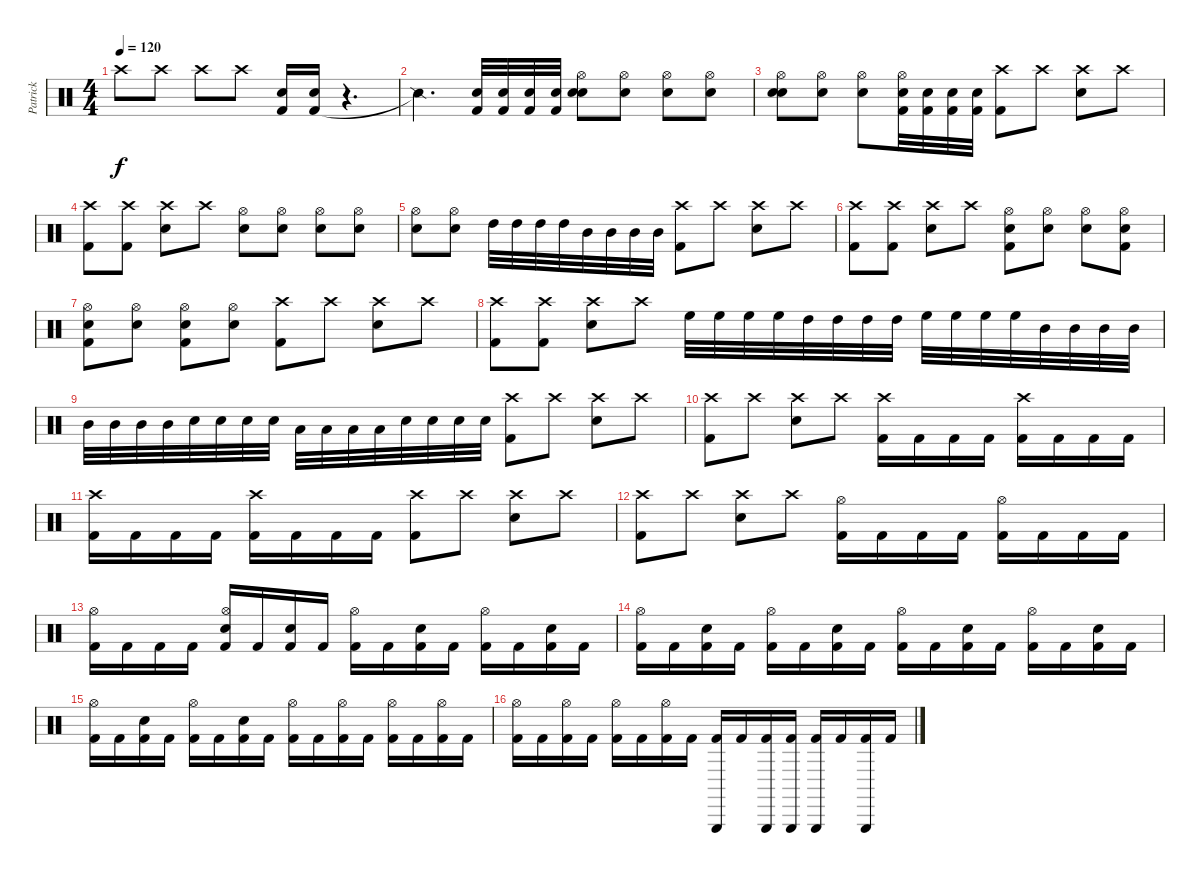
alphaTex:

\track ("Patrick" "Patrick") {instrument percussion}
\staff {score}
\articulation defaults
\ts (4 4)
\tempo 120
\clef neutral
\ks c "Crash high (hit)".8{dy f} "Crash high (hit)".8 "Crash high (hit)".8 "Crash high (hit)".8
("Kick (hit) 2" "Electric Snare (hit)").16 ("Kick (hit) 2" "Electric Snare (hit)").16 r.4{d} |
"Snare (side stick) 2"{t}.4{d} ("Kick (hit) 2" "Electric Snare (hit)").32 ("Kick (hit) 2" "Electric Snare (hit)").32 ("Kick (hit) 2" "Electric Snare (hit)").32 ("Kick (hit) 2" "Electric Snare (hit)").32 ("Hi-Hat (open)" "Snare (hit) 2" "Electric Snare (hit)").8 ("Hi-Hat (open)" "Snare (hit) 2").8 ("Hi-Hat (open)" "Snare (hit) 2").8 ("Hi-Hat (open)" "Snare (hit) 2").8 |
("Hi-Hat (open)" "Snare (hit) 2" "Electric Snare (hit)").8 ("Hi-Hat (open)" "Snare (hit) 2").8 ("Hi-Hat (open)" "Snare (hit) 2").8 ("Kick (hit) 2" "Electric Snare (hit)" "Hi-Hat (open)").32 ("Kick (hit) 2" "Electric Snare (hit)").32 ("Kick (hit) 2" "Electric Snare (hit)").32 ("Kick (hit) 2" "Electric Snare (hit)").32 ("Crash high (hit)" "Kick (hit) 2").8 "Crash high (hit)".8 ("Crash high (hit)" "Snare (hit) 2").8 "Crash high (hit)".8 |
("Crash high (hit)" "Kick (hit) 2").8 ("Crash high (hit)" "Kick (hit) 2").8 ("Crash high (hit)" "Snare (hit) 2").8 "Crash high (hit)".8 ("Hi-Hat (open)" "Snare (hit) 2").8 ("Hi-Hat (open)" "Snare (hit) 2").8 ("Hi-Hat (open)" "Snare (hit) 2").8 ("Hi-Hat (open)" "Snare (hit) 2").8 |
("Hi-Hat (open)" "Snare (hit) 2").8 ("Hi-Hat (open)" "Snare (hit) 2").8 "High Tom (hit)".32 "High Tom (hit)".32 "High Tom (hit)".32 "High Tom (hit)".32 "Mid Tom (hit)".32 "Mid Tom (hit)".32 "Mid Tom (hit)".32 "Mid Tom (hit)".32 ("Crash high (hit)" "Kick (hit) 2").8 "Crash high (hit)".8 ("Crash high (hit)" "Snare (hit) 2").8 "Crash high (hit)".8 |
("Crash high (hit)" "Kick (hit) 2").8 ("Crash high (hit)" "Kick (hit) 2").8 ("Crash high (hit)" "Snare (hit) 2").8 "Crash high (hit)".8 ("Hi-Hat (open)" "Electric Snare (hit)" "Kick (hit) 2").8 ("Hi-Hat (open)" "Electric Snare (hit)").8 ("Hi-Hat (open)" "Electric Snare (hit)").8 ("Hi-Hat (open)" "Electric Snare (hit)" "Kick (hit) 2").8 |
("Hi-Hat (open)" "Electric Snare (hit)" "Kick (hit) 2").8 ("Hi-Hat (open)" "Electric Snare (hit)").8 ("Hi-Hat (open)" "Electric Snare (hit)" "Kick (hit) 2").8 ("Hi-Hat (open)" "Electric Snare (hit)").8 ("Crash high (hit)" "Kick (hit) 2").8 "Crash high (hit)".8 ("Crash high (hit)" "Snare (hit) 2").8 "Crash high (hit)".8 |
("Crash high (hit)" "Kick (hit) 2").8 ("Crash high (hit)" "Kick (hit) 2").8 ("Crash high (hit)" "Snare (hit) 2").8 "Crash high (hit)".8 "High Floor Tom (hit)".32 "High Floor Tom (hit)".32 "High Floor Tom (hit)".32 "High Floor Tom (hit)".32 "High Tom (hit)".32 "High Tom (hit)".32 "High Tom (hit)".32 "High Tom (hit)".32 "High Floor Tom (hit)".32 "High Floor Tom (hit)".32 "High Floor Tom (hit)".32 "High Floor Tom (hit)".32 "Mid Tom (hit)".32 "Mid Tom (hit)".32 "Mid Tom (hit)".32 "Mid Tom (hit)".32 |
"Mid Tom (hit)".32 "Mid Tom (hit)".32 "Mid Tom (hit)".32 "Mid Tom (hit)".32 "Snare (hit) 2".32 "Snare (hit) 2".32 "Snare (hit) 2".32 "Snare (hit) 2".32 "Low Tom (hit)".32 "Low Tom (hit)".32 "Low Tom (hit)".32 "Low Tom (hit)".32 "Electric Snare (hit)".32 "Electric Snare (hit)".32 "Electric Snare (hit)".32 "Electric Snare (hit)".32 ("Crash high (hit)" "Kick (hit) 2").8 "Crash high (hit)".8 ("Crash high (hit)" "Snare (hit) 2").8 "Crash high (hit)".8 |
("Crash high (hit)" "Kick (hit) 2").8 "Crash high (hit)".8 ("Crash high (hit)" "Snare (hit) 2").8 "Crash high (hit)".8 ("Crash high (hit)" "Kick (hit) 2").16 "Kick (hit) 2".16 "Kick (hit) 2".16 "Kick (hit) 2".16 ("Crash high (hit)" "Kick (hit) 2").16 "Kick (hit) 2".16 "Kick (hit) 2".16 "Kick (hit) 2".16 |
("Crash high (hit)" "Kick (hit) 2").16 "Kick (hit) 2".16 "Kick (hit) 2".16 "Kick (hit) 2".16 ("Crash high (hit)" "Kick (hit) 2").16 "Kick (hit) 2".16 "Kick (hit) 2".16 "Kick (hit) 2".16 ("Crash high (hit)" "Kick (hit) 2").8 "Crash high (hit)".8 ("Crash high (hit)" "Snare (hit) 2").8 "Crash high (hit)".8 |
("Crash high (hit)" "Kick (hit) 2").8 "Crash high (hit)".8 ("Crash high (hit)" "Snare (hit) 2").8 "Crash high (hit)".8 ("Hi-Hat (open)" "Kick (hit) 2").16 "Kick (hit) 2".16 "Kick (hit) 2".16 "Kick (hit) 2".16 ("Hi-Hat (open)" "Kick (hit) 2").16 "Kick (hit) 2".16 "Kick (hit) 2".16 "Kick (hit) 2".16 |
("Hi-Hat (open)" "Kick (hit) 2").16 "Kick (hit) 2".16 "Kick (hit) 2".16 "Kick (hit) 2".16 ("Hi-Hat (open)" "Snare (hit) 2" "Kick (hit) 2").16 "Kick (hit) 2".16 ("Snare (hit) 2" "Kick (hit) 2").16 "Kick (hit) 2".16 ("Hi-Hat (open)" "Kick (hit) 2").16 "Kick (hit) 2".16 ("Electric Snare (hit)" "Kick (hit) 2").16 "Kick (hit) 2".16 ("Hi-Hat (open)" "Kick (hit) 2").16 "Kick (hit) 2".16 ("Electric Snare (hit)" "Kick (hit) 2").16 "Kick (hit) 2".16 |
("Hi-Hat (open)" "Kick (hit) 2").16 "Kick (hit) 2".16 ("Electric Snare (hit)" "Kick (hit) 2").16 "Kick (hit) 2".16 ("Hi-Hat (open)" "Kick (hit) 2").16 "Kick (hit) 2".16 ("Electric Snare (hit)" "Kick (hit) 2").16 "Kick (hit) 2".16 ("Hi-Hat (open)" "Kick (hit) 2").16 "Kick (hit) 2".16 ("Snare (hit) 2" "Kick (hit) 2").16 "Kick (hit) 2".16 ("Hi-Hat (open)" "Kick (hit) 2").16 "Kick (hit) 2".16 ("Snare (hit) 2" "Kick (hit) 2").16 "Kick (hit) 2".16 |
("Hi-Hat (open)" "Kick (hit) 2").16 "Kick (hit) 2".16 ("Snare (hit) 2" "Kick (hit) 2").16 "Kick (hit) 2".16 ("Hi-Hat (open)" "Kick (hit) 2").16 "Kick (hit) 2".16 ("Snare (hit) 2" "Kick (hit) 2").16 "Kick (hit) 2".16 ("Hi-Hat (open)" "Kick (hit) 2").16 "Kick (hit) 2".16 ("Hi-Hat (open)" "Kick (hit) 2").16 "Kick (hit) 2".16 ("Hi-Hat (open)" "Kick (hit) 2").16 "Kick (hit) 2".16 ("Hi-Hat (open)" "Kick (hit) 2").16 "Kick (hit) 2".16 |
("Hi-Hat (open)" "Kick (hit) 2").16 "Kick (hit) 2".16 ("Hi-Hat (open)" "Kick (hit) 2").16 "Kick (hit) 2".16 ("Hi-Hat (open)" "Kick (hit) 2").16 "Kick (hit) 2".16 ("Hi-Hat (open)" "Kick (hit) 2").16 "Kick (hit) 2".16 ("Triangle (hit)" "Kick (hit) 2").16 "Kick (hit) 2".16 ("Triangle (hit)" "Kick (hit) 2").16 ("Triangle (hit)" "Kick (hit) 2").16 ("Triangle (hit)" "Kick (hit) 2").16 "Kick (hit) 2".16 ("Triangle (hit)" "Kick (hit) 2").16 "Kick (hit) 2".16
